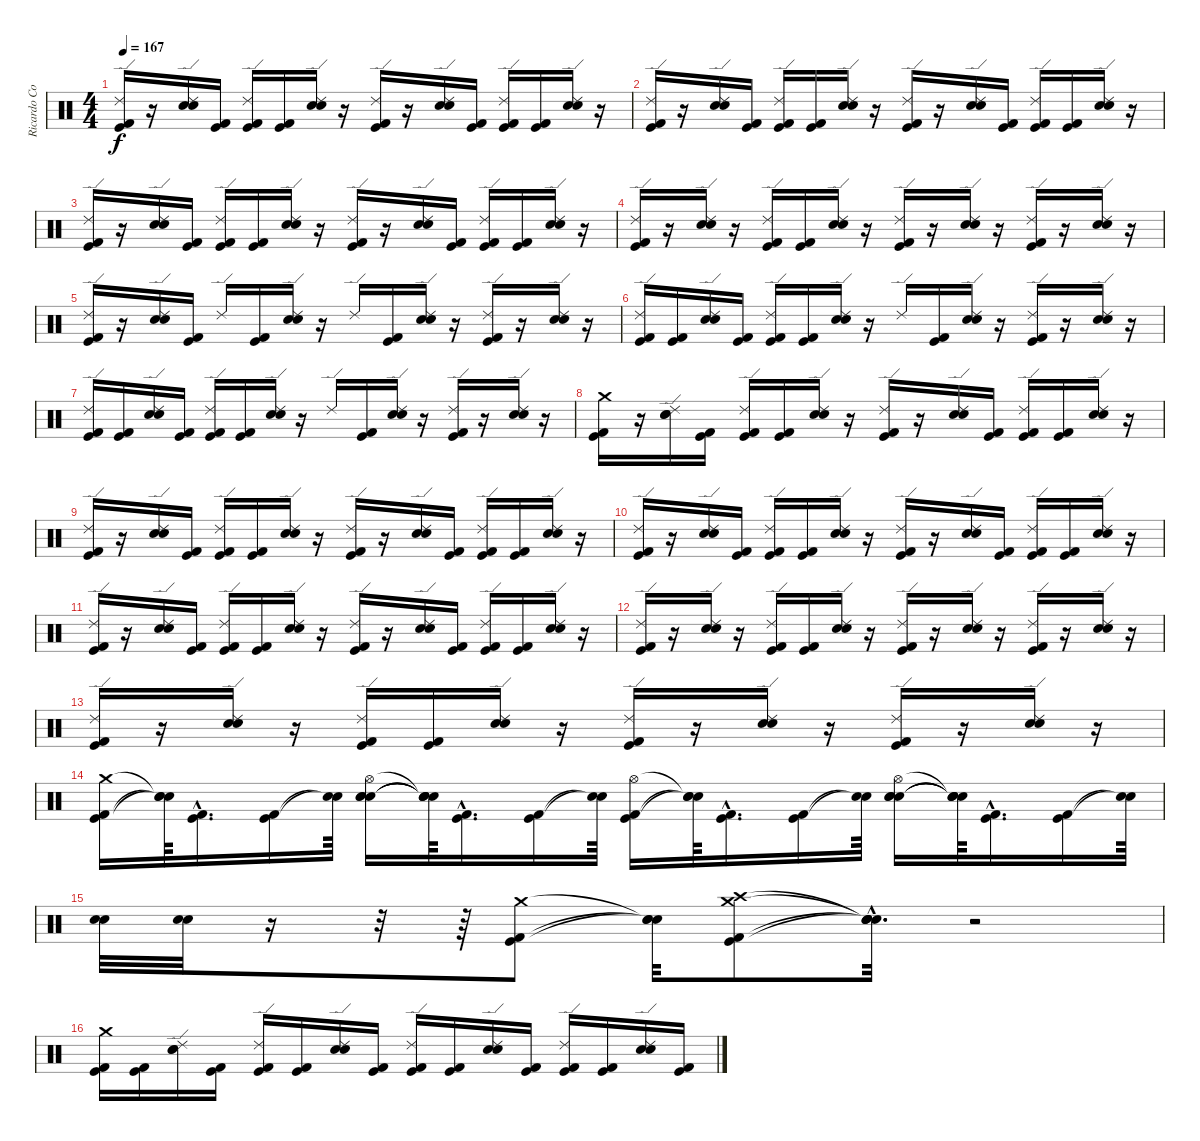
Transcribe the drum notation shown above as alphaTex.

\track ("Ricardo Confessori" "Ricardo Co") {instrument percussion}
\staff {score}
\articulation defaults
\ts (4 4)
\tempo 167
\clef neutral
\ks c
("Ride (edge) 2" "Kick (hit) 2" "Kick (hit)").16{dy f} r.16 ("Ride (edge) 2" "Electric Snare (hit)" "Snare (hit) 2").16 ("Kick (hit) 2" "Kick (hit)").16 ("Ride (edge) 2" "Kick (hit) 2" "Kick (hit)").16 ("Kick (hit) 2" "Kick (hit)").16 ("Ride (edge) 2" "Electric Snare (hit)" "Snare (hit) 2").16 r.16 ("Ride (edge) 2" "Kick (hit) 2" "Kick (hit)").16 r.16 ("Ride (edge) 2" "Electric Snare (hit)" "Snare (hit) 2").16 ("Kick (hit) 2" "Kick (hit)").16 ("Ride (edge) 2" "Kick (hit) 2" "Kick (hit)").16 ("Kick (hit) 2" "Kick (hit)").16 ("Ride (edge) 2" "Electric Snare (hit)" "Snare (hit) 2").16 r.16 |
("Ride (edge) 2" "Kick (hit) 2" "Kick (hit)").16 r.16 ("Ride (edge) 2" "Electric Snare (hit)" "Snare (hit) 2").16 ("Kick (hit) 2" "Kick (hit)").16 ("Ride (edge) 2" "Kick (hit) 2" "Kick (hit)").16 ("Kick (hit) 2" "Kick (hit)").16 ("Ride (edge) 2" "Electric Snare (hit)" "Snare (hit) 2").16 r.16 ("Ride (edge) 2" "Kick (hit) 2" "Kick (hit)").16 r.16 ("Ride (edge) 2" "Electric Snare (hit)" "Snare (hit) 2").16 ("Kick (hit) 2" "Kick (hit)").16 ("Ride (edge) 2" "Kick (hit) 2" "Kick (hit)").16 ("Kick (hit) 2" "Kick (hit)").16 ("Ride (edge) 2" "Electric Snare (hit)" "Snare (hit) 2").16 r.16 |
("Ride (edge) 2" "Kick (hit) 2" "Kick (hit)").16 r.16 ("Ride (edge) 2" "Electric Snare (hit)" "Snare (hit) 2").16 ("Kick (hit) 2" "Kick (hit)").16 ("Ride (edge) 2" "Kick (hit) 2" "Kick (hit)").16 ("Kick (hit) 2" "Kick (hit)").16 ("Ride (edge) 2" "Electric Snare (hit)" "Snare (hit) 2").16 r.16 ("Ride (edge) 2" "Kick (hit) 2" "Kick (hit)").16 r.16 ("Ride (edge) 2" "Electric Snare (hit)" "Snare (hit) 2").16 ("Kick (hit) 2" "Kick (hit)").16 ("Ride (edge) 2" "Kick (hit) 2" "Kick (hit)").16 ("Kick (hit) 2" "Kick (hit)").16 ("Ride (edge) 2" "Electric Snare (hit)" "Snare (hit) 2").16 r.16 |
("Kick (hit) 2" "Ride (edge) 2" "Kick (hit)").16 r.16 ("Electric Snare (hit)" "Snare (hit) 2" "Ride (edge) 2").16 r.16 ("Kick (hit) 2" "Kick (hit)" "Ride (edge) 2").16 ("Kick (hit) 2" "Kick (hit)").16 ("Electric Snare (hit)" "Snare (hit) 2" "Ride (edge) 2").16 r.16 ("Kick (hit) 2" "Kick (hit)" "Ride (edge) 2").16 r.16 ("Electric Snare (hit)" "Snare (hit) 2" "Ride (edge) 2").16 r.16 ("Kick (hit) 2" "Kick (hit)" "Ride (edge) 2").16 r.16 ("Electric Snare (hit)" "Snare (hit) 2" "Ride (edge) 2").16 r.16 |
("Ride (edge) 2" "Kick (hit) 2" "Kick (hit)").16 r.16 ("Ride (edge) 2" "Snare (hit) 2" "Electric Snare (hit)").16 ("Kick (hit) 2" "Kick (hit)").16 "Ride (edge) 2".16 ("Kick (hit) 2" "Kick (hit)").16 ("Ride (edge) 2" "Electric Snare (hit)" "Snare (hit) 2").16 r.16 "Ride (edge) 2".16 ("Kick (hit) 2" "Kick (hit)").16 ("Ride (edge) 2" "Electric Snare (hit)" "Snare (hit) 2").16 r.16 ("Ride (edge) 2" "Kick (hit) 2" "Kick (hit)").16 r.16 ("Ride (edge) 2" "Electric Snare (hit)" "Snare (hit) 2").16 r.16 |
("Ride (edge) 2" "Kick (hit) 2" "Kick (hit)").16 ("Kick (hit) 2" "Kick (hit)").16 ("Ride (edge) 2" "Electric Snare (hit)" "Snare (hit) 2").16 ("Kick (hit) 2" "Kick (hit)").16 ("Ride (edge) 2" "Kick (hit) 2" "Kick (hit)").16 ("Kick (hit) 2" "Kick (hit)").16 ("Ride (edge) 2" "Electric Snare (hit)" "Snare (hit) 2").16 r.16 "Ride (edge) 2".16 ("Kick (hit) 2" "Kick (hit)").16 ("Ride (edge) 2" "Electric Snare (hit)" "Snare (hit) 2").16 r.16 ("Ride (edge) 2" "Kick (hit) 2" "Kick (hit)").16 r.16 ("Ride (edge) 2" "Electric Snare (hit)" "Snare (hit) 2").16 r.16 |
("Ride (edge) 2" "Kick (hit) 2" "Kick (hit)").16 ("Kick (hit) 2" "Kick (hit)").16 ("Ride (edge) 2" "Electric Snare (hit)" "Snare (hit) 2").16 ("Kick (hit) 2" "Kick (hit)").16 ("Ride (edge) 2" "Kick (hit) 2" "Kick (hit)").16 ("Kick (hit) 2" "Kick (hit)").16 ("Ride (edge) 2" "Electric Snare (hit)" "Snare (hit) 2").16 r.16 "Ride (edge) 2".16 ("Kick (hit) 2" "Kick (hit)").16 ("Ride (edge) 2" "Electric Snare (hit)" "Snare (hit) 2").16 r.16 ("Ride (edge) 2" "Kick (hit) 2" "Kick (hit)").16 r.16 ("Ride (edge) 2" "Electric Snare (hit)" "Snare (hit) 2").16 r.16 |
("Crash medium (hit)" "Kick (hit) 2" "Kick (hit)").16 r.16 ("Ride (edge) 2" "Electric Snare (hit)" "Snare (hit) 2").16 ("Kick (hit) 2" "Kick (hit)").16 ("Ride (edge) 2" "Kick (hit) 2" "Kick (hit)").16 ("Kick (hit) 2" "Kick (hit)").16 ("Ride (edge) 2" "Electric Snare (hit)" "Snare (hit) 2").16 r.16 ("Ride (edge) 2" "Kick (hit) 2" "Kick (hit)").16 r.16 ("Ride (edge) 2" "Electric Snare (hit)" "Snare (hit) 2").16 ("Kick (hit) 2" "Kick (hit)").16 ("Ride (edge) 2" "Kick (hit) 2" "Kick (hit)").16 ("Kick (hit) 2" "Kick (hit)").16 ("Ride (edge) 2" "Electric Snare (hit)" "Snare (hit) 2").16 r.16 |
("Ride (edge) 2" "Kick (hit) 2" "Kick (hit)").16 r.16 ("Ride (edge) 2" "Electric Snare (hit)" "Snare (hit) 2").16 ("Kick (hit) 2" "Kick (hit)").16 ("Ride (edge) 2" "Kick (hit) 2" "Kick (hit)").16 ("Kick (hit) 2" "Kick (hit)").16 ("Ride (edge) 2" "Electric Snare (hit)" "Snare (hit) 2").16 r.16 ("Ride (edge) 2" "Kick (hit) 2" "Kick (hit)").16 r.16 ("Ride (edge) 2" "Electric Snare (hit)" "Snare (hit) 2").16 ("Kick (hit) 2" "Kick (hit)").16 ("Ride (edge) 2" "Kick (hit) 2" "Kick (hit)").16 ("Kick (hit) 2" "Kick (hit)").16 ("Ride (edge) 2" "Electric Snare (hit)" "Snare (hit) 2").16 r.16 |
("Ride (edge) 2" "Kick (hit) 2" "Kick (hit)").16 r.16 ("Ride (edge) 2" "Electric Snare (hit)" "Snare (hit) 2").16 ("Kick (hit) 2" "Kick (hit)").16 ("Ride (edge) 2" "Kick (hit) 2" "Kick (hit)").16 ("Kick (hit) 2" "Kick (hit)").16 ("Ride (edge) 2" "Electric Snare (hit)" "Snare (hit) 2").16 r.16 ("Ride (edge) 2" "Kick (hit) 2" "Kick (hit)").16 r.16 ("Ride (edge) 2" "Electric Snare (hit)" "Snare (hit) 2").16 ("Kick (hit) 2" "Kick (hit)").16 ("Ride (edge) 2" "Kick (hit) 2" "Kick (hit)").16 ("Kick (hit) 2" "Kick (hit)").16 ("Ride (edge) 2" "Electric Snare (hit)" "Snare (hit) 2").16 r.16 |
("Ride (edge) 2" "Kick (hit) 2" "Kick (hit)").16 r.16 ("Ride (edge) 2" "Electric Snare (hit)" "Snare (hit) 2").16 ("Kick (hit) 2" "Kick (hit)").16 ("Ride (edge) 2" "Kick (hit) 2" "Kick (hit)").16 ("Kick (hit) 2" "Kick (hit)").16 ("Ride (edge) 2" "Electric Snare (hit)" "Snare (hit) 2").16 r.16 ("Ride (edge) 2" "Kick (hit) 2" "Kick (hit)").16 r.16 ("Ride (edge) 2" "Electric Snare (hit)" "Snare (hit) 2").16 ("Kick (hit) 2" "Kick (hit)").16 ("Ride (edge) 2" "Kick (hit) 2" "Kick (hit)").16 ("Kick (hit) 2" "Kick (hit)").16 ("Ride (edge) 2" "Electric Snare (hit)" "Snare (hit) 2").16 r.16 |
("Kick (hit) 2" "Ride (edge) 2" "Kick (hit)").16 r.16 ("Electric Snare (hit)" "Snare (hit) 2" "Ride (edge) 2").16 r.16 ("Kick (hit) 2" "Kick (hit)" "Ride (edge) 2").16 ("Kick (hit) 2" "Kick (hit)").16 ("Electric Snare (hit)" "Snare (hit) 2" "Ride (edge) 2").16 r.16 ("Kick (hit) 2" "Kick (hit)" "Ride (edge) 2").16 r.16 ("Electric Snare (hit)" "Snare (hit) 2" "Ride (edge) 2").16 r.16 ("Kick (hit) 2" "Kick (hit)" "Ride (edge) 2").16 r.16 ("Electric Snare (hit)" "Snare (hit) 2" "Ride (edge) 2").16 r.16 |
("Kick (hit) 2" "Ride (edge) 2" "Kick (hit)").16 r.16 ("Electric Snare (hit)" "Snare (hit) 2" "Ride (edge) 2").16 r.16 ("Kick (hit) 2" "Kick (hit)" "Ride (edge) 2").16 ("Kick (hit) 2" "Kick (hit)").16 ("Electric Snare (hit)" "Snare (hit) 2" "Ride (edge) 2").16 r.16 ("Kick (hit) 2" "Kick (hit)" "Ride (edge) 2").16 r.16 ("Electric Snare (hit)" "Snare (hit) 2" "Ride (edge) 2").16 r.16 ("Kick (hit) 2" "Kick (hit)" "Ride (edge) 2").16 r.16 ("Electric Snare (hit)" "Snare (hit) 2" "Ride (edge) 2").16 r.16 |
("Crash medium (hit)" "Kick (hit) 2" "Kick (hit)").16 ("Snare (hit)"{t} "Snare (hit)"{t} "Snare (hit)"{t}).64 ("Kick (hit) 2"{hac} "Kick (hit)"{hac}).16{d} ("Kick (hit) 2" "Kick (hit)").16 ("Snare (hit)"{t} "Snare (hit)"{t}).64 ("Electric Snare (hit)" "Snare (hit) 2" "Hi-Hat (open)" "Snare (hit)").16 ("Snare (hit)"{t} "Snare (hit)"{t} "Snare (hit)"{t} "Snare (hit)"{t}).64 ("Kick (hit) 2"{hac} "Kick (hit)"{hac}).16{d} ("Kick (hit) 2" "Kick (hit)").16 ("Snare (hit)"{t} "Snare (hit)"{t}).64 ("Hi-Hat (open)" "Kick (hit) 2" "Kick (hit)").16 ("Snare (hit)"{t} "Snare (hit)"{t} "Snare (hit)"{t}).64 ("Kick (hit) 2"{hac} "Kick (hit)"{hac}).16{d} ("Kick (hit) 2" "Kick (hit)").16 ("Snare (hit)"{t} "Snare (hit)"{t}).64 ("Hi-Hat (open)" "Electric Snare (hit)" "Snare (hit) 2" "Snare (hit)").16 ("Snare (hit)"{t} "Snare (hit)"{t} "Snare (hit)"{t} "Snare (hit)"{t}).64 ("Kick (hit) 2"{hac} "Kick (hit)"{hac}).16{d} ("Kick (hit) 2" "Kick (hit)").16 ("Snare (hit)"{t} "Snare (hit)"{t}).64 |
("Electric Snare (hit)" "Snare (hit) 2").32 ("Electric Snare (hit)" "Snare (hit) 2").32 r.16 r.32 r.64 ("Crash medium (hit)" "Kick (hit) 2" "Kick (hit)").8 ("Snare (hit)"{t} "Snare (hit)"{t} "Snare (hit)"{t}).32 ("Crash medium (hit)" "Crash high (hit)" "Kick (hit) 2" "Kick (hit)").8 ("Snare (hit)"{hac t} "Snare (hit)"{hac t} "Snare (hit)"{hac t} "Snare (hit)"{hac t}).32{d} r.2 |
("Crash medium (hit)" "Kick (hit) 2" "Kick (hit)").16 ("Kick (hit) 2" "Kick (hit)").16 ("Electric Snare (hit)" "Snare (hit) 2" "Ride (edge) 2").16 ("Kick (hit) 2" "Kick (hit)").16 ("Ride (edge) 2" "Kick (hit) 2" "Kick (hit)").16 ("Kick (hit) 2" "Kick (hit)").16 ("Electric Snare (hit)" "Snare (hit) 2" "Ride (edge) 2").16 ("Kick (hit) 2" "Kick (hit)").16 ("Ride (edge) 2" "Kick (hit) 2" "Kick (hit)").16 ("Kick (hit) 2" "Kick (hit)").16 ("Electric Snare (hit)" "Snare (hit) 2" "Ride (edge) 2").16 ("Kick (hit) 2" "Kick (hit)").16 ("Ride (edge) 2" "Kick (hit) 2" "Kick (hit)").16 ("Kick (hit) 2" "Kick (hit)").16 ("Electric Snare (hit)" "Snare (hit) 2" "Ride (edge) 2").16 ("Kick (hit) 2" "Kick (hit)").16
